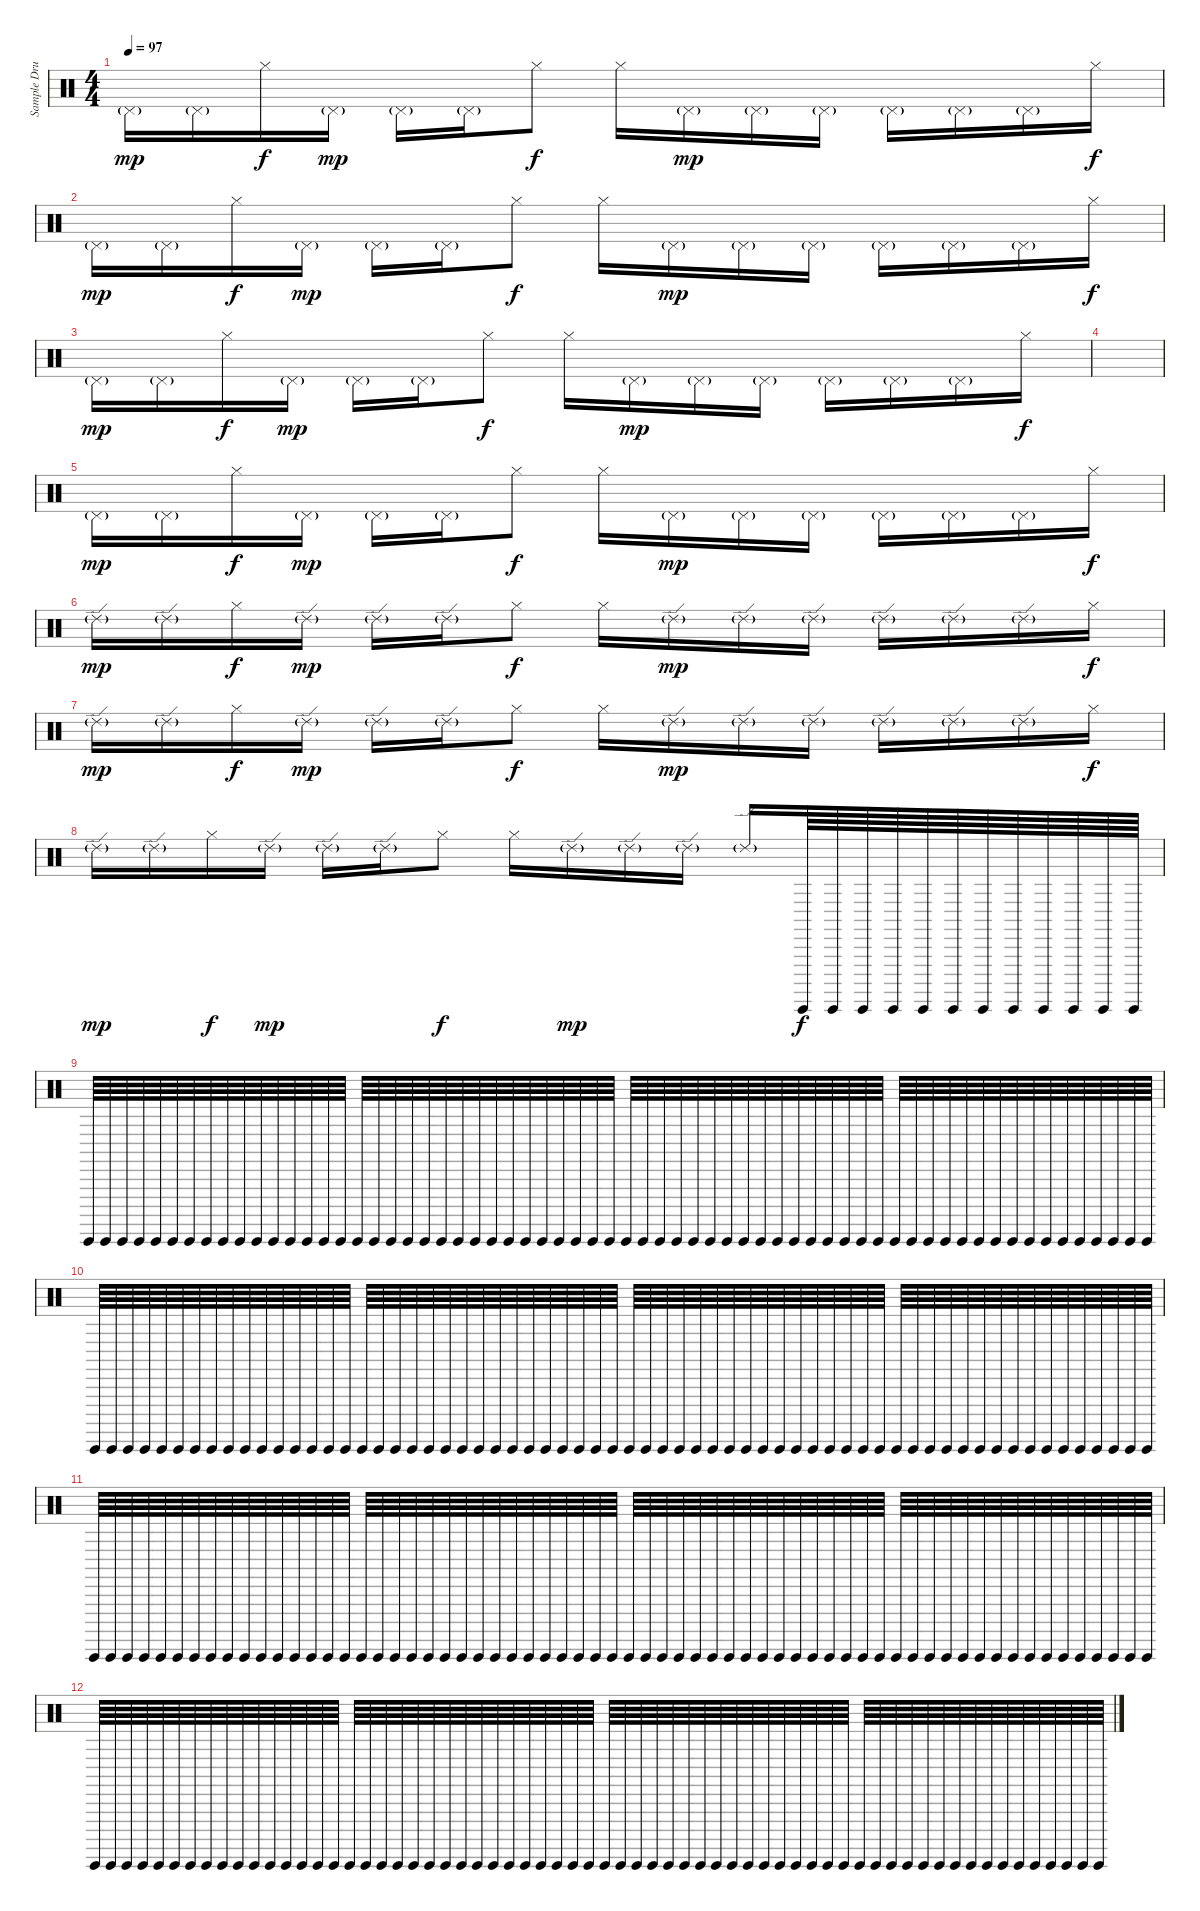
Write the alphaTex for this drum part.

\track ("Sample Drums" "Sample Dru") {instrument percussion}
\staff {score}
\articulation defaults
\ts (4 4)
\tempo 97
\clef neutral
\ks c "Pedal Hi-Hat (hit)"{g}.16{dy mp} "Pedal Hi-Hat (hit)"{g}.16 "Hi-Hat (closed)".16{dy f} "Pedal Hi-Hat (hit)"{g}.16{dy mp} "Pedal Hi-Hat (hit)"{g}.16 "Pedal Hi-Hat (hit)"{g}.16 "Hi-Hat (closed)".8{dy f} "Hi-Hat (closed)".16 "Pedal Hi-Hat (hit)"{g}.16{dy mp} "Pedal Hi-Hat (hit)"{g}.16 "Pedal Hi-Hat (hit)"{g}.16 "Pedal Hi-Hat (hit)"{g}.16 "Pedal Hi-Hat (hit)"{g}.16 "Pedal Hi-Hat (hit)"{g}.16 "Hi-Hat (closed)".16{dy f}
|
"Pedal Hi-Hat (hit)"{g}.16{dy mp} "Pedal Hi-Hat (hit)"{g}.16 "Hi-Hat (closed)".16{dy f} "Pedal Hi-Hat (hit)"{g}.16{dy mp} "Pedal Hi-Hat (hit)"{g}.16 "Pedal Hi-Hat (hit)"{g}.16 "Hi-Hat (closed)".8{dy f} "Hi-Hat (closed)".16 "Pedal Hi-Hat (hit)"{g}.16{dy mp} "Pedal Hi-Hat (hit)"{g}.16 "Pedal Hi-Hat (hit)"{g}.16 "Pedal Hi-Hat (hit)"{g}.16 "Pedal Hi-Hat (hit)"{g}.16 "Pedal Hi-Hat (hit)"{g}.16 "Hi-Hat (closed)".16{dy f} |
"Pedal Hi-Hat (hit)"{g}.16{dy mp} "Pedal Hi-Hat (hit)"{g}.16 "Hi-Hat (closed)".16{dy f} "Pedal Hi-Hat (hit)"{g}.16{dy mp} "Pedal Hi-Hat (hit)"{g}.16 "Pedal Hi-Hat (hit)"{g}.16 "Hi-Hat (closed)".8{dy f} "Hi-Hat (closed)".16 "Pedal Hi-Hat (hit)"{g}.16{dy mp} "Pedal Hi-Hat (hit)"{g}.16 "Pedal Hi-Hat (hit)"{g}.16 "Pedal Hi-Hat (hit)"{g}.16 "Pedal Hi-Hat (hit)"{g}.16 "Pedal Hi-Hat (hit)"{g}.16 "Hi-Hat (closed)".16{dy f} |
|
"Pedal Hi-Hat (hit)"{g}.16{dy mp} "Pedal Hi-Hat (hit)"{g}.16 "Hi-Hat (closed)".16{dy f} "Pedal Hi-Hat (hit)"{g}.16{dy mp} "Pedal Hi-Hat (hit)"{g}.16 "Pedal Hi-Hat (hit)"{g}.16 "Hi-Hat (closed)".8{dy f} "Hi-Hat (closed)".16 "Pedal Hi-Hat (hit)"{g}.16{dy mp} "Pedal Hi-Hat (hit)"{g}.16 "Pedal Hi-Hat (hit)"{g}.16 "Pedal Hi-Hat (hit)"{g}.16 "Pedal Hi-Hat (hit)"{g}.16 "Pedal Hi-Hat (hit)"{g}.16 "Hi-Hat (closed)".16{dy f} |
"Ride (edge) 2"{g}.16{dy mp} "Ride (edge) 2"{g}.16 "Hi-Hat (closed)".16{dy f} "Ride (edge) 2"{g}.16{dy mp} "Ride (edge) 2"{g}.16 "Ride (edge) 2"{g}.16 "Hi-Hat (closed)".8{dy f} "Hi-Hat (closed)".16 "Ride (edge) 2"{g}.16{dy mp} "Ride (edge) 2"{g}.16 "Ride (edge) 2"{g}.16 "Ride (edge) 2"{g}.16 "Ride (edge) 2"{g}.16 "Ride (edge) 2"{g}.16 "Hi-Hat (closed)".16{dy f} |
"Ride (edge) 2"{g}.16{dy mp} "Ride (edge) 2"{g}.16 "Hi-Hat (closed)".16{dy f} "Ride (edge) 2"{g}.16{dy mp} "Ride (edge) 2"{g}.16 "Ride (edge) 2"{g}.16 "Hi-Hat (closed)".8{dy f} "Hi-Hat (closed)".16 "Ride (edge) 2"{g}.16{dy mp} "Ride (edge) 2"{g}.16 "Ride (edge) 2"{g}.16 "Ride (edge) 2"{g}.16 "Ride (edge) 2"{g}.16 "Ride (edge) 2"{g}.16 "Hi-Hat (closed)".16{dy f} |
"Ride (edge) 2"{g}.16{dy mp} "Ride (edge) 2"{g}.16 "Hi-Hat (closed)".16{dy f} "Ride (edge) 2"{g}.16{dy mp} "Ride (edge) 2"{g}.16 "Ride (edge) 2"{g}.16 "Hi-Hat (closed)".8{dy f} "Hi-Hat (closed)".16 "Ride (edge) 2"{g}.16{dy mp} "Ride (edge) 2"{g}.16 "Ride (edge) 2"{g}.16 "Ride (edge) 2"{g}.16 "Guiro (hit)".64{dy f} "Guiro (hit)".64 "Guiro (hit)".64 "Guiro (hit)".64 "Guiro (hit)".64 "Guiro (hit)".64 "Guiro (hit)".64 "Guiro (hit)".64 "Guiro (hit)".64 "Guiro (hit)".64 "Guiro (hit)".64 "Guiro (hit)".64 |
"Guiro (hit)".64 "Guiro (hit)".64 "Guiro (hit)".64 "Guiro (hit)".64 "Guiro (hit)".64 "Guiro (hit)".64 "Guiro (hit)".64 "Guiro (hit)".64 "Guiro (hit)".64 "Guiro (hit)".64 "Guiro (hit)".64 "Guiro (hit)".64 "Guiro (hit)".64 "Guiro (hit)".64 "Guiro (hit)".64 "Guiro (hit)".64 "Guiro (hit)".64 "Guiro (hit)".64 "Guiro (hit)".64 "Guiro (hit)".64 "Guiro (hit)".64 "Guiro (hit)".64 "Guiro (hit)".64 "Guiro (hit)".64 "Guiro (hit)".64 "Guiro (hit)".64 "Guiro (hit)".64 "Guiro (hit)".64 "Guiro (hit)".64 "Guiro (hit)".64 "Guiro (hit)".64 "Guiro (hit)".64 "Guiro (hit)".64 "Guiro (hit)".64 "Guiro (hit)".64 "Guiro (hit)".64 "Guiro (hit)".64 "Guiro (hit)".64 "Guiro (hit)".64 "Guiro (hit)".64 "Guiro (hit)".64 "Guiro (hit)".64 "Guiro (hit)".64 "Guiro (hit)".64 "Guiro (hit)".64 "Guiro (hit)".64 "Guiro (hit)".64 "Guiro (hit)".64 "Guiro (hit)".64 "Guiro (hit)".64 "Guiro (hit)".64 "Guiro (hit)".64 "Guiro (hit)".64 "Guiro (hit)".64 "Guiro (hit)".64 "Guiro (hit)".64 "Guiro (hit)".64 "Guiro (hit)".64 "Guiro (hit)".64 "Guiro (hit)".64 "Guiro (hit)".64 "Guiro (hit)".64 "Guiro (hit)".64 "Guiro (hit)".64 |
"Guiro (hit)".64 "Guiro (hit)".64 "Guiro (hit)".64 "Guiro (hit)".64 "Guiro (hit)".64 "Guiro (hit)".64 "Guiro (hit)".64 "Guiro (hit)".64 "Guiro (hit)".64 "Guiro (hit)".64 "Guiro (hit)".64 "Guiro (hit)".64 "Guiro (hit)".64 "Guiro (hit)".64 "Guiro (hit)".64 "Guiro (hit)".64 "Guiro (hit)".64 "Guiro (hit)".64 "Guiro (hit)".64 "Guiro (hit)".64 "Guiro (hit)".64 "Guiro (hit)".64 "Guiro (hit)".64 "Guiro (hit)".64 "Guiro (hit)".64 "Guiro (hit)".64 "Guiro (hit)".64 "Guiro (hit)".64 "Guiro (hit)".64 "Guiro (hit)".64 "Guiro (hit)".64 "Guiro (hit)".64 "Guiro (hit)".64 "Guiro (hit)".64 "Guiro (hit)".64 "Guiro (hit)".64 "Guiro (hit)".64 "Guiro (hit)".64 "Guiro (hit)".64 "Guiro (hit)".64 "Guiro (hit)".64 "Guiro (hit)".64 "Guiro (hit)".64 "Guiro (hit)".64 "Guiro (hit)".64 "Guiro (hit)".64 "Guiro (hit)".64 "Guiro (hit)".64 "Guiro (hit)".64 "Guiro (hit)".64 "Guiro (hit)".64 "Guiro (hit)".64 "Guiro (hit)".64 "Guiro (hit)".64 "Guiro (hit)".64 "Guiro (hit)".64 "Guiro (hit)".64 "Guiro (hit)".64 "Guiro (hit)".64 "Guiro (hit)".64 "Guiro (hit)".64 "Guiro (hit)".64 "Guiro (hit)".64 "Guiro (hit)".64 |
"Guiro (hit)".64 "Guiro (hit)".64 "Guiro (hit)".64 "Guiro (hit)".64 "Guiro (hit)".64 "Guiro (hit)".64 "Guiro (hit)".64 "Guiro (hit)".64 "Guiro (hit)".64 "Guiro (hit)".64 "Guiro (hit)".64 "Guiro (hit)".64 "Guiro (hit)".64 "Guiro (hit)".64 "Guiro (hit)".64 "Guiro (hit)".64 "Guiro (hit)".64 "Guiro (hit)".64 "Guiro (hit)".64 "Guiro (hit)".64 "Guiro (hit)".64 "Guiro (hit)".64 "Guiro (hit)".64 "Guiro (hit)".64 "Guiro (hit)".64 "Guiro (hit)".64 "Guiro (hit)".64 "Guiro (hit)".64 "Guiro (hit)".64 "Guiro (hit)".64 "Guiro (hit)".64 "Guiro (hit)".64 "Guiro (hit)".64 "Guiro (hit)".64 "Guiro (hit)".64 "Guiro (hit)".64 "Guiro (hit)".64 "Guiro (hit)".64 "Guiro (hit)".64 "Guiro (hit)".64 "Guiro (hit)".64 "Guiro (hit)".64 "Guiro (hit)".64 "Guiro (hit)".64 "Guiro (hit)".64 "Guiro (hit)".64 "Guiro (hit)".64 "Guiro (hit)".64 "Guiro (hit)".64 "Guiro (hit)".64 "Guiro (hit)".64 "Guiro (hit)".64 "Guiro (hit)".64 "Guiro (hit)".64 "Guiro (hit)".64 "Guiro (hit)".64 "Guiro (hit)".64 "Guiro (hit)".64 "Guiro (hit)".64 "Guiro (hit)".64 "Guiro (hit)".64 "Guiro (hit)".64 "Guiro (hit)".64 "Guiro (hit)".64 |
"Guiro (hit)".64 "Guiro (hit)".64 "Guiro (hit)".64 "Guiro (hit)".64 "Guiro (hit)".64 "Guiro (hit)".64 "Guiro (hit)".64 "Guiro (hit)".64 "Guiro (hit)".64 "Guiro (hit)".64 "Guiro (hit)".64 "Guiro (hit)".64 "Guiro (hit)".64 "Guiro (hit)".64 "Guiro (hit)".64 "Guiro (hit)".64 "Guiro (hit)".64 "Guiro (hit)".64 "Guiro (hit)".64 "Guiro (hit)".64 "Guiro (hit)".64 "Guiro (hit)".64 "Guiro (hit)".64 "Guiro (hit)".64 "Guiro (hit)".64 "Guiro (hit)".64 "Guiro (hit)".64 "Guiro (hit)".64 "Guiro (hit)".64 "Guiro (hit)".64 "Guiro (hit)".64 "Guiro (hit)".64 "Guiro (hit)".64 "Guiro (hit)".64 "Guiro (hit)".64 "Guiro (hit)".64 "Guiro (hit)".64 "Guiro (hit)".64 "Guiro (hit)".64 "Guiro (hit)".64 "Guiro (hit)".64 "Guiro (hit)".64 "Guiro (hit)".64 "Guiro (hit)".64 "Guiro (hit)".64 "Guiro (hit)".64 "Guiro (hit)".64 "Guiro (hit)".64 "Guiro (hit)".64 "Guiro (hit)".64 "Guiro (hit)".64 "Guiro (hit)".64 "Guiro (hit)".64 "Guiro (hit)".64 "Guiro (hit)".64 "Guiro (hit)".64 "Guiro (hit)".64 "Guiro (hit)".64 "Guiro (hit)".64 "Guiro (hit)".64 "Guiro (hit)".64 "Guiro (hit)".64 "Guiro (hit)".64 "Guiro (hit)".64
